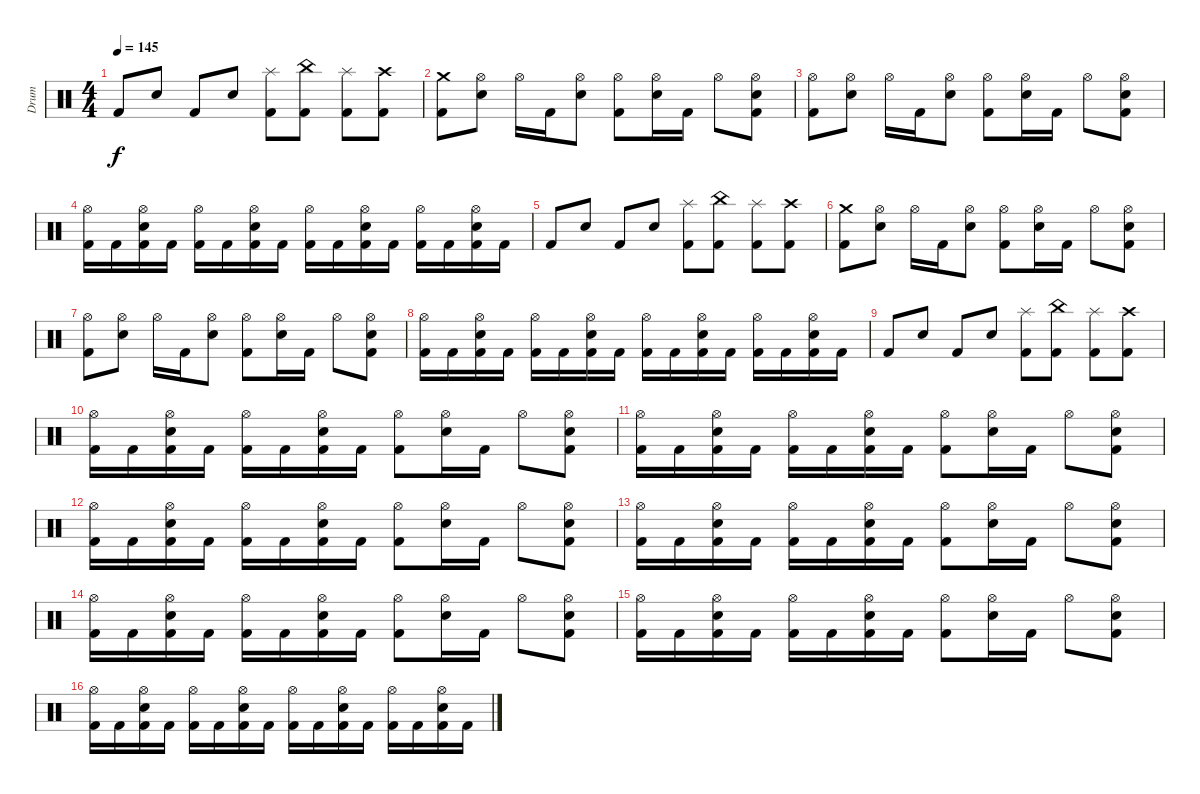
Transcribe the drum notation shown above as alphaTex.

\track ("Drum" "Drum") {instrument percussion}
\staff {score}
\articulation defaults
\ts (4 4)
\tempo 145
\clef neutral
\ks c "Kick (hit) 2".8{dy f} "Snare (hit) 2".8 "Kick (hit) 2".8 "Snare (hit) 2".8
("Splash (hit)" "Kick (hit) 2").8 ("China (hit)" "Kick (hit) 2").8 ("Splash (hit)" "Kick (hit) 2").8 ("Crash high (hit)" "Kick (hit) 2").8 |
("Crash medium (hit)" "Kick (hit) 2").8 ("Hi-Hat (open)" "Snare (hit) 2").8 "Hi-Hat (open)".16 "Kick (hit) 2".16 ("Hi-Hat (open)" "Snare (hit) 2").8 ("Hi-Hat (open)" "Kick (hit) 2").8 ("Hi-Hat (open)" "Snare (hit) 2").16 "Kick (hit) 2".16 "Hi-Hat (open)".8 ("Hi-Hat (open)" "Snare (hit) 2" "Kick (hit) 2").8 |
("Hi-Hat (open)" "Kick (hit) 2").8 ("Hi-Hat (open)" "Snare (hit) 2").8 "Hi-Hat (open)".16 "Kick (hit) 2".16 ("Hi-Hat (open)" "Snare (hit) 2").8 ("Hi-Hat (open)" "Kick (hit) 2").8 ("Hi-Hat (open)" "Snare (hit) 2").16 "Kick (hit) 2".16 "Hi-Hat (open)".8 ("Hi-Hat (open)" "Snare (hit) 2" "Kick (hit) 2").8 |
("Hi-Hat (open)" "Kick (hit) 2").16 "Kick (hit) 2".16 ("Hi-Hat (open)" "Snare (hit) 2" "Kick (hit) 2").16 "Kick (hit) 2".16 ("Hi-Hat (open)" "Kick (hit) 2").16 "Kick (hit) 2".16 ("Hi-Hat (open)" "Snare (hit) 2" "Kick (hit) 2").16 "Kick (hit) 2".16 ("Hi-Hat (open)" "Kick (hit) 2").16 "Kick (hit) 2".16 ("Hi-Hat (open)" "Snare (hit) 2" "Kick (hit) 2").16 "Kick (hit) 2".16 ("Hi-Hat (open)" "Kick (hit) 2").16 "Kick (hit) 2".16 ("Hi-Hat (open)" "Snare (hit) 2" "Kick (hit) 2").16 "Kick (hit) 2".16 |
"Kick (hit) 2".8 "Snare (hit) 2".8 "Kick (hit) 2".8 "Snare (hit) 2".8 ("Splash (hit)" "Kick (hit) 2").8 ("China (hit)" "Kick (hit) 2").8 ("Splash (hit)" "Kick (hit) 2").8 ("Crash high (hit)" "Kick (hit) 2").8 |
("Crash medium (hit)" "Kick (hit) 2").8 ("Hi-Hat (open)" "Snare (hit) 2").8 "Hi-Hat (open)".16 "Kick (hit) 2".16 ("Hi-Hat (open)" "Snare (hit) 2").8 ("Hi-Hat (open)" "Kick (hit) 2").8 ("Hi-Hat (open)" "Snare (hit) 2").16 "Kick (hit) 2".16 "Hi-Hat (open)".8 ("Hi-Hat (open)" "Snare (hit) 2" "Kick (hit) 2").8 |
("Hi-Hat (open)" "Kick (hit) 2").8 ("Hi-Hat (open)" "Snare (hit) 2").8 "Hi-Hat (open)".16 "Kick (hit) 2".16 ("Hi-Hat (open)" "Snare (hit) 2").8 ("Hi-Hat (open)" "Kick (hit) 2").8 ("Hi-Hat (open)" "Snare (hit) 2").16 "Kick (hit) 2".16 "Hi-Hat (open)".8 ("Hi-Hat (open)" "Snare (hit) 2" "Kick (hit) 2").8 |
("Hi-Hat (open)" "Kick (hit) 2").16 "Kick (hit) 2".16 ("Hi-Hat (open)" "Snare (hit) 2" "Kick (hit) 2").16 "Kick (hit) 2".16 ("Hi-Hat (open)" "Kick (hit) 2").16 "Kick (hit) 2".16 ("Hi-Hat (open)" "Snare (hit) 2" "Kick (hit) 2").16 "Kick (hit) 2".16 ("Hi-Hat (open)" "Kick (hit) 2").16 "Kick (hit) 2".16 ("Hi-Hat (open)" "Snare (hit) 2" "Kick (hit) 2").16 "Kick (hit) 2".16 ("Hi-Hat (open)" "Kick (hit) 2").16 "Kick (hit) 2".16 ("Hi-Hat (open)" "Snare (hit) 2" "Kick (hit) 2").16 "Kick (hit) 2".16 |
"Kick (hit) 2".8 "Snare (hit) 2".8 "Kick (hit) 2".8 "Snare (hit) 2".8 ("Splash (hit)" "Kick (hit) 2").8 ("China (hit)" "Kick (hit) 2").8 ("Splash (hit)" "Kick (hit) 2").8 ("Crash high (hit)" "Kick (hit) 2").8 |
("Hi-Hat (open)" "Kick (hit) 2").16 "Kick (hit) 2".16 ("Hi-Hat (open)" "Snare (hit) 2" "Kick (hit) 2").16 "Kick (hit) 2".16 ("Hi-Hat (open)" "Kick (hit) 2").16 "Kick (hit) 2".16 ("Hi-Hat (open)" "Snare (hit) 2" "Kick (hit) 2").16 "Kick (hit) 2".16 ("Hi-Hat (open)" "Kick (hit) 2").8 ("Hi-Hat (open)" "Snare (hit) 2").16 "Kick (hit) 2".16 "Hi-Hat (open)".8 ("Hi-Hat (open)" "Snare (hit) 2" "Kick (hit) 2").8 |
("Hi-Hat (open)" "Kick (hit) 2").16 "Kick (hit) 2".16 ("Hi-Hat (open)" "Snare (hit) 2" "Kick (hit) 2").16 "Kick (hit) 2".16 ("Hi-Hat (open)" "Kick (hit) 2").16 "Kick (hit) 2".16 ("Hi-Hat (open)" "Snare (hit) 2" "Kick (hit) 2").16 "Kick (hit) 2".16 ("Hi-Hat (open)" "Kick (hit) 2").8 ("Hi-Hat (open)" "Snare (hit) 2").16 "Kick (hit) 2".16 "Hi-Hat (open)".8 ("Hi-Hat (open)" "Snare (hit) 2" "Kick (hit) 2").8 |
("Hi-Hat (open)" "Kick (hit) 2").16 "Kick (hit) 2".16 ("Hi-Hat (open)" "Snare (hit) 2" "Kick (hit) 2").16 "Kick (hit) 2".16 ("Hi-Hat (open)" "Kick (hit) 2").16 "Kick (hit) 2".16 ("Hi-Hat (open)" "Snare (hit) 2" "Kick (hit) 2").16 "Kick (hit) 2".16 ("Hi-Hat (open)" "Kick (hit) 2").8 ("Hi-Hat (open)" "Snare (hit) 2").16 "Kick (hit) 2".16 "Hi-Hat (open)".8 ("Hi-Hat (open)" "Snare (hit) 2" "Kick (hit) 2").8 |
("Hi-Hat (open)" "Kick (hit) 2").16 "Kick (hit) 2".16 ("Hi-Hat (open)" "Snare (hit) 2" "Kick (hit) 2").16 "Kick (hit) 2".16 ("Hi-Hat (open)" "Kick (hit) 2").16 "Kick (hit) 2".16 ("Hi-Hat (open)" "Snare (hit) 2" "Kick (hit) 2").16 "Kick (hit) 2".16 ("Hi-Hat (open)" "Kick (hit) 2").8 ("Hi-Hat (open)" "Snare (hit) 2").16 "Kick (hit) 2".16 "Hi-Hat (open)".8 ("Hi-Hat (open)" "Snare (hit) 2" "Kick (hit) 2").8 |
("Hi-Hat (open)" "Kick (hit) 2").16 "Kick (hit) 2".16 ("Hi-Hat (open)" "Snare (hit) 2" "Kick (hit) 2").16 "Kick (hit) 2".16 ("Hi-Hat (open)" "Kick (hit) 2").16 "Kick (hit) 2".16 ("Hi-Hat (open)" "Snare (hit) 2" "Kick (hit) 2").16 "Kick (hit) 2".16 ("Hi-Hat (open)" "Kick (hit) 2").8 ("Hi-Hat (open)" "Snare (hit) 2").16 "Kick (hit) 2".16 "Hi-Hat (open)".8 ("Hi-Hat (open)" "Snare (hit) 2" "Kick (hit) 2").8 |
("Hi-Hat (open)" "Kick (hit) 2").16 "Kick (hit) 2".16 ("Hi-Hat (open)" "Snare (hit) 2" "Kick (hit) 2").16 "Kick (hit) 2".16 ("Hi-Hat (open)" "Kick (hit) 2").16 "Kick (hit) 2".16 ("Hi-Hat (open)" "Snare (hit) 2" "Kick (hit) 2").16 "Kick (hit) 2".16 ("Hi-Hat (open)" "Kick (hit) 2").8 ("Hi-Hat (open)" "Snare (hit) 2").16 "Kick (hit) 2".16 "Hi-Hat (open)".8 ("Hi-Hat (open)" "Snare (hit) 2" "Kick (hit) 2").8 |
("Hi-Hat (open)" "Kick (hit) 2").16 "Kick (hit) 2".16 ("Hi-Hat (open)" "Snare (hit) 2" "Kick (hit) 2").16 "Kick (hit) 2".16 ("Hi-Hat (open)" "Kick (hit) 2").16 "Kick (hit) 2".16 ("Hi-Hat (open)" "Snare (hit) 2" "Kick (hit) 2").16 "Kick (hit) 2".16 ("Hi-Hat (open)" "Kick (hit) 2").16 "Kick (hit) 2".16 ("Hi-Hat (open)" "Snare (hit) 2" "Kick (hit) 2").16 "Kick (hit) 2".16 ("Hi-Hat (open)" "Kick (hit) 2").16 "Kick (hit) 2".16 ("Hi-Hat (open)" "Snare (hit) 2" "Kick (hit) 2").16 "Kick (hit) 2".16
